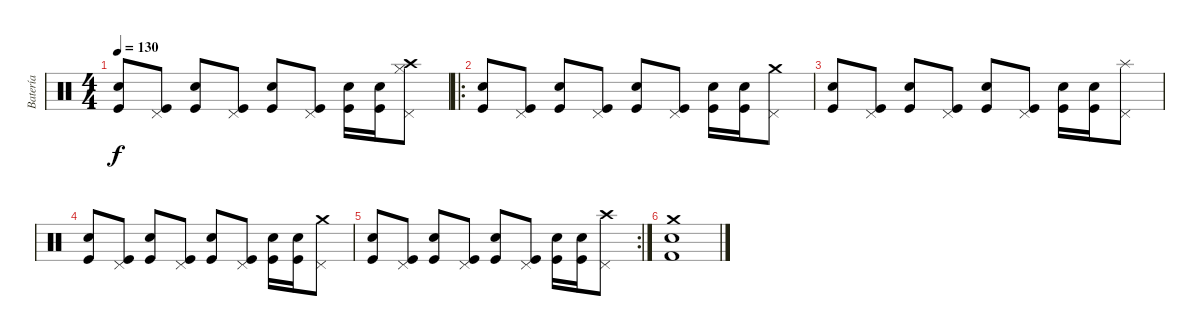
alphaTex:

\track ("Batería" "Batería") {instrument percussion}
\staff {score}
\articulation defaults
\ts (4 4)
\tempo 130
\clef neutral
\ks c
("Kick (hit)" "Electric Snare (hit)").8{dy f} ("Kick (hit)" "Pedal Hi-Hat (hit)").8 ("Kick (hit)" "Electric Snare (hit)").8 ("Kick (hit)" "Pedal Hi-Hat (hit)").8 ("Kick (hit)" "Electric Snare (hit)").8 ("Kick (hit)" "Pedal Hi-Hat (hit)").8 ("Kick (hit)" "Electric Snare (hit)").16 ("Kick (hit)" "Electric Snare (hit)").16 ("Crash high (hit)" "Hi-Hat (closed)" "Pedal Hi-Hat (hit)").8 |
\ro
("Kick (hit)" "Electric Snare (hit)").8 ("Kick (hit)" "Pedal Hi-Hat (hit)").8 ("Kick (hit)" "Electric Snare (hit)").8 ("Kick (hit)" "Pedal Hi-Hat (hit)").8 ("Kick (hit)" "Electric Snare (hit)").8 ("Kick (hit)" "Pedal Hi-Hat (hit)").8 ("Kick (hit)" "Electric Snare (hit)").16 ("Kick (hit)" "Electric Snare (hit)").16 ("Crash medium (hit)" "Pedal Hi-Hat (hit)").8 |
("Kick (hit)" "Electric Snare (hit)").8 ("Kick (hit)" "Pedal Hi-Hat (hit)").8 ("Kick (hit)" "Electric Snare (hit)").8 ("Kick (hit)" "Pedal Hi-Hat (hit)").8 ("Kick (hit)" "Electric Snare (hit)").8 ("Kick (hit)" "Pedal Hi-Hat (hit)").8 ("Kick (hit)" "Electric Snare (hit)").16 ("Kick (hit)" "Electric Snare (hit)").16 ("Splash (hit)" "Pedal Hi-Hat (hit)").8 |
("Kick (hit)" "Electric Snare (hit)").8 ("Kick (hit)" "Pedal Hi-Hat (hit)").8 ("Kick (hit)" "Electric Snare (hit)").8 ("Kick (hit)" "Pedal Hi-Hat (hit)").8 ("Kick (hit)" "Electric Snare (hit)").8 ("Kick (hit)" "Pedal Hi-Hat (hit)").8 ("Kick (hit)" "Electric Snare (hit)").16 ("Kick (hit)" "Electric Snare (hit)").16 ("Crash medium (hit)" "Pedal Hi-Hat (hit)").8 |
\rc 2
("Kick (hit)" "Electric Snare (hit)").8 ("Kick (hit)" "Pedal Hi-Hat (hit)").8 ("Kick (hit)" "Electric Snare (hit)").8 ("Kick (hit)" "Pedal Hi-Hat (hit)").8 ("Kick (hit)" "Electric Snare (hit)").8 ("Kick (hit)" "Pedal Hi-Hat (hit)").8 ("Kick (hit)" "Electric Snare (hit)").16 ("Kick (hit)" "Electric Snare (hit)").16 ("Crash high (hit)" "Pedal Hi-Hat (hit)").8 |
("Electric Snare (hit)" "Crash medium (hit)" "Kick (hit) 2").1
